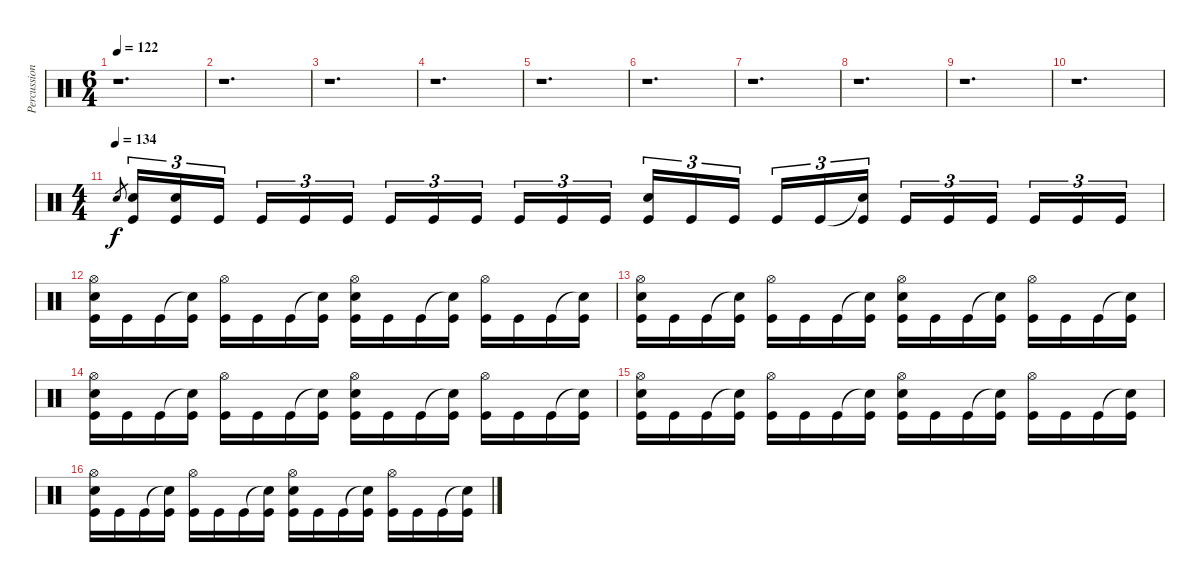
\track ("Percussion" "Percussion") {instrument percussion}
\staff {score}
\articulation defaults
\ts (6 4)
\tempo 122
\clef neutral
\ks c
r.1{d dy f} |
r.1{d} |
r.1{d} |
r.1{d} |
r.1{d} |
r.1{d} |
r.1{d} |
r.1{d} |
r.1{d} |
r.1{d} |
\ts (4 4)
\tempo (134)
"Snare (hit) 2".8{gr} ("Snare (hit) 2" "Kick (hit)").16{tu (3 2)} ("Snare (hit) 2" "Kick (hit)").16{tu (3 2)} "Kick (hit)".16{tu (3 2)} "Kick (hit)".16{tu (3 2)} "Kick (hit)".16{tu (3 2)} "Kick (hit)".16{tu (3 2)} "Kick (hit)".16{tu (3 2)} "Kick (hit)".16{tu (3 2)} "Kick (hit)".16{tu (3 2)} "Kick (hit)".16{tu (3 2)} "Kick (hit)".16{tu (3 2)} "Kick (hit)".16{tu (3 2)} ("Electric Snare (hit)" "Kick (hit)").16{tu (3 2)} "Kick (hit)".16{tu (3 2)} "Kick (hit)".16{tu (3 2)} "Kick (hit)".16{tu (3 2)} "Kick (hit)".16{tu (3 2)} ("Snare (hit)"{t} "Kick (hit)").16{tu (3 2)} "Kick (hit)".16{tu (3 2)} "Kick (hit)".16{tu (3 2)} "Kick (hit)".16{tu (3 2)} "Kick (hit)".16{tu (3 2)} "Kick (hit)".16{tu (3 2)} "Kick (hit)".16{tu (3 2)} |
("Hi-Hat (open)" "Electric Snare (hit)" "Kick (hit)").16 "Kick (hit)".16 "Kick (hit)".16 ("Snare (hit)"{t} "Kick (hit)").16 ("Hi-Hat (open)" "Kick (hit)").16 "Kick (hit)".16 "Kick (hit)".16 ("Snare (hit)"{t} "Kick (hit)").16 ("Hi-Hat (open)" "Electric Snare (hit)" "Kick (hit)").16 "Kick (hit)".16 "Kick (hit)".16 ("Snare (hit)"{t} "Kick (hit)").16 ("Hi-Hat (open)" "Kick (hit)").16 "Kick (hit)".16 "Kick (hit)".16 ("Snare (hit)"{t} "Kick (hit)").16 |
("Hi-Hat (open)" "Electric Snare (hit)" "Kick (hit)").16 "Kick (hit)".16 "Kick (hit)".16 ("Snare (hit)"{t} "Kick (hit)").16 ("Hi-Hat (open)" "Kick (hit)").16 "Kick (hit)".16 "Kick (hit)".16 ("Snare (hit)"{t} "Kick (hit)").16 ("Hi-Hat (open)" "Electric Snare (hit)" "Kick (hit)").16 "Kick (hit)".16 "Kick (hit)".16 ("Snare (hit)"{t} "Kick (hit)").16 ("Hi-Hat (open)" "Kick (hit)").16 "Kick (hit)".16 "Kick (hit)".16 ("Snare (hit)"{t} "Kick (hit)").16 |
("Hi-Hat (open)" "Electric Snare (hit)" "Kick (hit)").16 "Kick (hit)".16 "Kick (hit)".16 ("Snare (hit)"{t} "Kick (hit)").16 ("Hi-Hat (open)" "Kick (hit)").16 "Kick (hit)".16 "Kick (hit)".16 ("Snare (hit)"{t} "Kick (hit)").16 ("Hi-Hat (open)" "Electric Snare (hit)" "Kick (hit)").16 "Kick (hit)".16 "Kick (hit)".16 ("Snare (hit)"{t} "Kick (hit)").16 ("Hi-Hat (open)" "Kick (hit)").16 "Kick (hit)".16 "Kick (hit)".16 ("Snare (hit)"{t} "Kick (hit)").16 |
("Hi-Hat (open)" "Electric Snare (hit)" "Kick (hit)").16 "Kick (hit)".16 "Kick (hit)".16 ("Snare (hit)"{t} "Kick (hit)").16 ("Hi-Hat (open)" "Kick (hit)").16 "Kick (hit)".16 "Kick (hit)".16 ("Snare (hit)"{t} "Kick (hit)").16 ("Hi-Hat (open)" "Electric Snare (hit)" "Kick (hit)").16 "Kick (hit)".16 "Kick (hit)".16 ("Snare (hit)"{t} "Kick (hit)").16 ("Hi-Hat (open)" "Kick (hit)").16 "Kick (hit)".16 "Kick (hit)".16 ("Snare (hit)"{t} "Kick (hit)").16 |
("Hi-Hat (open)" "Electric Snare (hit)" "Kick (hit)").16 "Kick (hit)".16 "Kick (hit)".16 ("Snare (hit)"{t} "Kick (hit)").16 ("Hi-Hat (open)" "Kick (hit)").16 "Kick (hit)".16 "Kick (hit)".16 ("Snare (hit)"{t} "Kick (hit)").16 ("Hi-Hat (open)" "Electric Snare (hit)" "Kick (hit)").16 "Kick (hit)".16 "Kick (hit)".16 ("Snare (hit)"{t} "Kick (hit)").16 ("Hi-Hat (open)" "Kick (hit)").16 "Kick (hit)".16 "Kick (hit)".16 ("Snare (hit)"{t} "Kick (hit)").16
